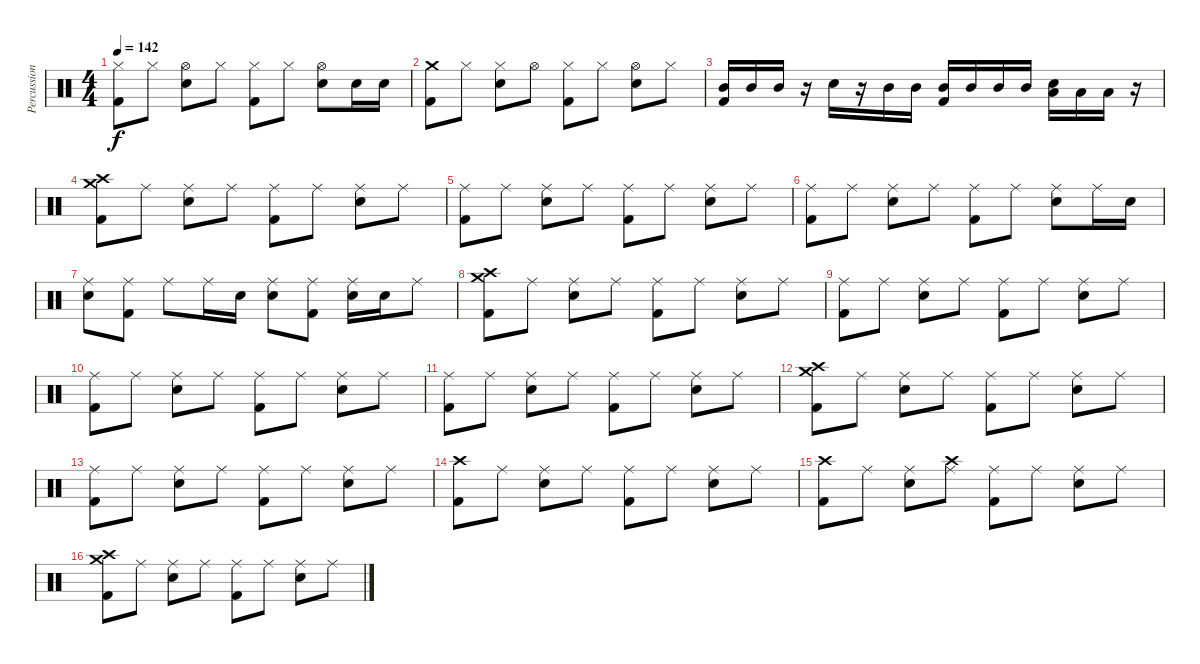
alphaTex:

\track ("Percussion" "Percussion") {instrument percussion}
\staff {score}
\articulation defaults
\ts (4 4)
\tempo 142
\clef neutral
\ks c
("Kick (hit) 2" "Hi-Hat (closed)").8{dy f} "Hi-Hat (closed)".8 ("Snare (hit) 2" "Hi-Hat (open)").8 "Hi-Hat (closed)".8 ("Kick (hit) 2" "Hi-Hat (closed)").8 "Hi-Hat (closed)".8 ("Snare (hit) 2" "Hi-Hat (open)").8 "Snare (hit) 2".16 "Snare (hit) 2".16 |
("Kick (hit) 2" "Crash medium (hit)").8 "Hi-Hat (closed)".8 ("Snare (hit) 2" "Hi-Hat (closed)").8 "Hi-Hat (open)".8 ("Kick (hit) 2" "Hi-Hat (closed)").8 "Hi-Hat (closed)".8 ("Snare (hit) 2" "Hi-Hat (open)").8 "Hi-Hat (closed)".8 |
("Kick (hit) 2" "Mid Tom (hit)").16 "Mid Tom (hit)".16 "Mid Tom (hit)".16 r.16 "Snare (hit) 2".16 r.16 "Mid Tom (hit)".16 "Mid Tom (hit)".16 ("Kick (hit) 2" "Mid Tom (hit)").16 "Mid Tom (hit)".16 "Mid Tom (hit)".16 "Mid Tom (hit)".16 ("Low Floor Tom (hit)" "Snare (hit) 2").16 "Low Floor Tom (hit)".16 "Low Floor Tom (hit)".16 r.16 |
("Kick (hit) 2" "Crash high (hit)" "Crash medium (hit)").8 "Ride (middle)".8 ("Snare (hit) 2" "Ride (middle)").8 "Ride (middle)".8 ("Kick (hit) 2" "Ride (middle)").8 "Ride (middle)".8 ("Snare (hit) 2" "Ride (middle)").8 "Ride (middle)".8 |
("Kick (hit) 2" "Ride (middle)").8 "Ride (middle)".8 ("Snare (hit) 2" "Ride (middle)").8 "Ride (middle)".8 ("Kick (hit) 2" "Ride (middle)").8 "Ride (middle)".8 ("Snare (hit) 2" "Ride (middle)").8 "Ride (middle)".8 |
("Kick (hit) 2" "Ride (middle)").8 "Ride (middle)".8 ("Snare (hit) 2" "Ride (middle)").8 "Ride (middle)".8 ("Kick (hit) 2" "Ride (middle)").8 "Ride (middle)".8 ("Snare (hit) 2" "Ride (middle)").8 "Ride (middle)".16 "Snare (hit) 2".16 |
("Snare (hit) 2" "Ride (middle)").8 ("Kick (hit) 2" "Ride (middle)").8 "Ride (middle)".8 "Ride (middle)".16 "Snare (hit) 2".16 ("Snare (hit) 2" "Ride (middle)").8 ("Kick (hit) 2" "Ride (middle)").8 ("Snare (hit) 2" "Ride (middle)").16 "Snare (hit) 2".16 "Ride (middle)".8 |
("Kick (hit) 2" "Crash high (hit)" "Crash medium (hit)").8 "Ride (middle)".8 ("Snare (hit) 2" "Ride (middle)").8 "Ride (middle)".8 ("Kick (hit) 2" "Ride (middle)").8 "Ride (middle)".8 ("Snare (hit) 2" "Ride (middle)").8 "Ride (middle)".8 |
("Kick (hit) 2" "Ride (middle)").8 "Ride (middle)".8 ("Snare (hit) 2" "Ride (middle)").8 "Ride (middle)".8 ("Kick (hit) 2" "Ride (middle)").8 "Ride (middle)".8 ("Snare (hit) 2" "Ride (middle)").8 "Ride (middle)".8 |
("Kick (hit) 2" "Ride (middle)").8 "Ride (middle)".8 ("Snare (hit) 2" "Ride (middle)").8 "Ride (middle)".8 ("Kick (hit) 2" "Ride (middle)").8 "Ride (middle)".8 ("Snare (hit) 2" "Ride (middle)").8 "Ride (middle)".8 |
("Kick (hit) 2" "Ride (middle)").8 "Ride (middle)".8 ("Snare (hit) 2" "Ride (middle)").8 "Ride (middle)".8 ("Kick (hit) 2" "Ride (middle)").8 "Ride (middle)".8 ("Snare (hit) 2" "Ride (middle)").8 "Ride (middle)".8 |
("Kick (hit) 2" "Crash high (hit)" "Crash medium (hit)").8{volume 5} "Ride (middle)".8 ("Snare (hit) 2" "Ride (middle)").8 "Ride (middle)".8 ("Kick (hit) 2" "Ride (middle)").8 "Ride (middle)".8 ("Snare (hit) 2" "Ride (middle)").8 "Ride (middle)".8 |
("Kick (hit) 2" "Ride (middle)").8 "Ride (middle)".8 ("Snare (hit) 2" "Ride (middle)").8 "Ride (middle)".8 ("Kick (hit) 2" "Ride (middle)").8 "Ride (middle)".8 ("Snare (hit) 2" "Ride (middle)").8 "Ride (middle)".8 |
("Kick (hit) 2" "Crash high (hit)").8 "Ride (middle)".8 ("Snare (hit) 2" "Ride (middle)").8 "Ride (middle)".8 ("Kick (hit) 2" "Ride (middle)").8 "Ride (middle)".8 ("Snare (hit) 2" "Ride (middle)").8 "Ride (middle)".8 |
("Kick (hit) 2" "Crash high (hit)").8 "Ride (middle)".8 ("Snare (hit) 2" "Ride (middle)").8 ("Ride (middle)" "Crash high (hit)").8 ("Kick (hit) 2" "Ride (middle)").8 "Ride (middle)".8 ("Snare (hit) 2" "Ride (middle)").8 "Ride (middle)".8 |
("Kick (hit) 2" "Crash high (hit)" "Crash medium (hit)").8 "Ride (middle)".8 ("Snare (hit) 2" "Ride (middle)").8 "Ride (middle)".8 ("Kick (hit) 2" "Ride (middle)").8 "Ride (middle)".8 ("Snare (hit) 2" "Ride (middle)").8 "Ride (middle)".8
